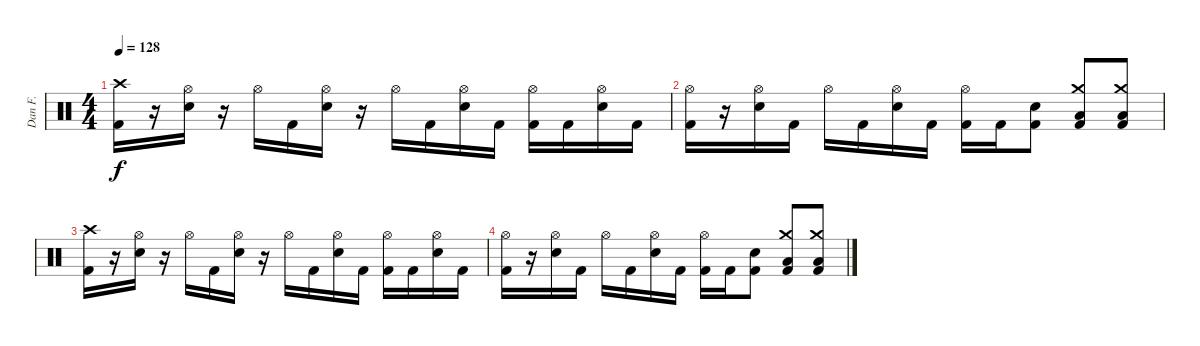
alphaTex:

\track ("Dan F." "Dan F.") {instrument percussion}
\staff {score}
\articulation defaults
\ts (4 4)
\tempo 128
\clef neutral
\ks c
("Crash high (hit)" "Kick (hit) 2").16{dy f} r.16 ("Hi-Hat (open)" "Electric Snare (hit)").16 r.16 "Hi-Hat (open)".16 "Kick (hit) 2".16 ("Hi-Hat (open)" "Electric Snare (hit)").16 r.16 "Hi-Hat (open)".16 "Kick (hit) 2".16 ("Hi-Hat (open)" "Electric Snare (hit)").16 "Kick (hit) 2".16 ("Hi-Hat (open)" "Kick (hit) 2").16 "Kick (hit) 2".16 ("Hi-Hat (open)" "Electric Snare (hit)").16 "Kick (hit) 2".16 |
("Hi-Hat (open)" "Kick (hit) 2").16 r.16 ("Hi-Hat (open)" "Electric Snare (hit)").16 "Kick (hit) 2".16 "Hi-Hat (open)".16 "Kick (hit) 2".16 ("Hi-Hat (open)" "Electric Snare (hit)").16 "Kick (hit) 2".16 ("Hi-Hat (open)" "Kick (hit) 2").16 "Kick (hit) 2".16 ("Electric Snare (hit)" "Kick (hit) 2").8 ("Crash medium (hit)" "Low Floor Tom (hit)" "Kick (hit) 2").8 ("Crash medium (hit)" "Low Floor Tom (hit)" "Kick (hit) 2").8 |
("Crash high (hit)" "Kick (hit) 2").16 r.16 ("Hi-Hat (open)" "Electric Snare (hit)").16 r.16 "Hi-Hat (open)".16 "Kick (hit) 2".16 ("Hi-Hat (open)" "Electric Snare (hit)").16 r.16 "Hi-Hat (open)".16 "Kick (hit) 2".16 ("Hi-Hat (open)" "Electric Snare (hit)").16 "Kick (hit) 2".16 ("Hi-Hat (open)" "Kick (hit) 2").16 "Kick (hit) 2".16 ("Hi-Hat (open)" "Electric Snare (hit)").16 "Kick (hit) 2".16 |
("Hi-Hat (open)" "Kick (hit) 2").16 r.16 ("Hi-Hat (open)" "Electric Snare (hit)").16 "Kick (hit) 2".16 "Hi-Hat (open)".16 "Kick (hit) 2".16 ("Hi-Hat (open)" "Electric Snare (hit)").16 "Kick (hit) 2".16 ("Hi-Hat (open)" "Kick (hit) 2").16 "Kick (hit) 2".16 ("Electric Snare (hit)" "Kick (hit) 2").8 ("Crash medium (hit)" "Low Floor Tom (hit)" "Kick (hit) 2").8 ("Crash medium (hit)" "Low Floor Tom (hit)" "Kick (hit) 2").8
